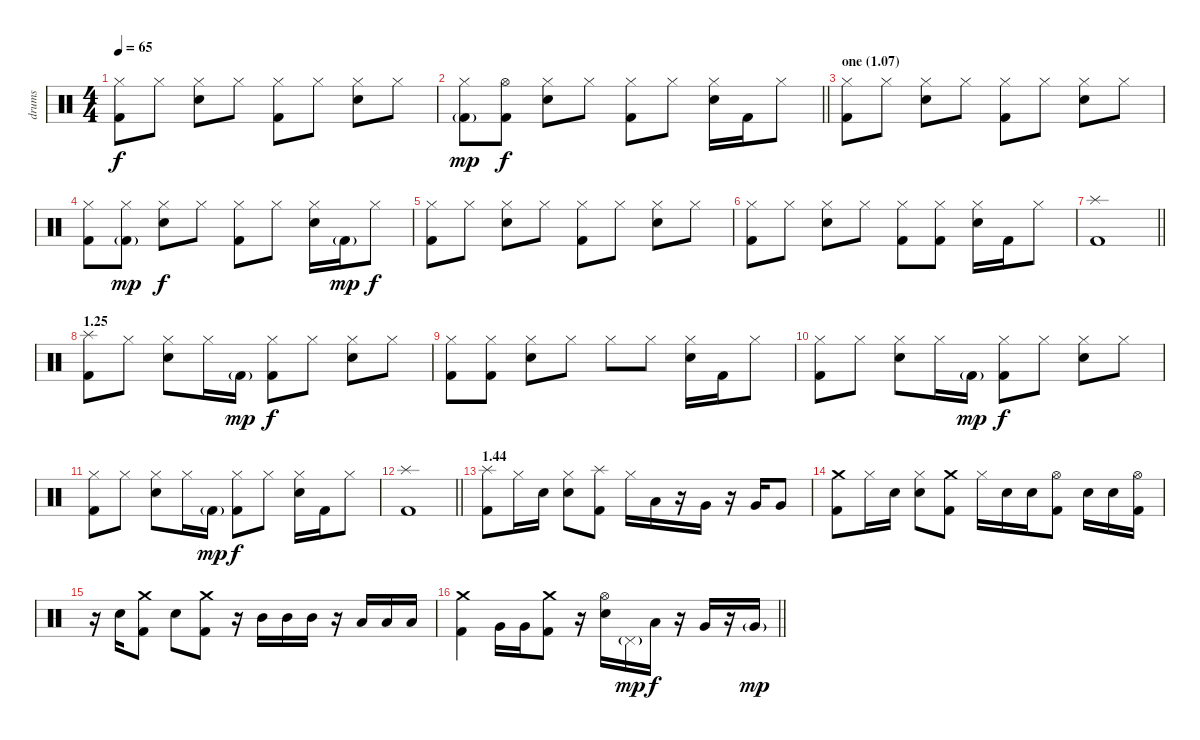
\track ("drums" "drums") {instrument percussion}
\staff {score}
\articulation defaults
\ts (4 4)
\tempo 65
\clef neutral
\ks c
("Hi-Hat (closed)" "Kick (hit) 2").8{dy f} "Hi-Hat (closed)".8 ("Hi-Hat (closed)" "Electric Snare (hit)").8 "Hi-Hat (closed)".8 ("Hi-Hat (closed)" "Kick (hit) 2").8 "Hi-Hat (closed)".8 ("Hi-Hat (closed)" "Electric Snare (hit)").8 "Hi-Hat (closed)".8 |
\barLineRight lightlight
("Hi-Hat (closed)" "Kick (hit) 2"{g}).8{dy mp} ("Hi-Hat (open)" "Kick (hit) 2").8{dy f} ("Hi-Hat (closed)" "Electric Snare (hit)").8 "Hi-Hat (closed)".8 ("Hi-Hat (closed)" "Kick (hit) 2").8 "Hi-Hat (closed)".8 ("Hi-Hat (closed)" "Electric Snare (hit)").16 "Kick (hit) 2".16 "Hi-Hat (closed)".8 |
\section ("" "one (1.07)")
("Hi-Hat (closed)" "Kick (hit) 2").8 "Hi-Hat (closed)".8 ("Hi-Hat (closed)" "Electric Snare (hit)").8 "Hi-Hat (closed)".8 ("Hi-Hat (closed)" "Kick (hit) 2").8 "Hi-Hat (closed)".8 ("Hi-Hat (closed)" "Electric Snare (hit)").8 "Hi-Hat (closed)".8 |
("Hi-Hat (closed)" "Kick (hit) 2").8 ("Hi-Hat (closed)" "Kick (hit) 2"{g}).8{dy mp} ("Hi-Hat (closed)" "Electric Snare (hit)").8{dy f} "Hi-Hat (closed)".8 ("Hi-Hat (closed)" "Kick (hit) 2").8 "Hi-Hat (closed)".8 ("Hi-Hat (closed)" "Electric Snare (hit)").16 "Kick (hit) 2"{g}.16{dy mp} "Hi-Hat (closed)".8{dy f} |
("Hi-Hat (closed)" "Kick (hit) 2").8 "Hi-Hat (closed)".8 ("Hi-Hat (closed)" "Electric Snare (hit)").8 "Hi-Hat (closed)".8 ("Hi-Hat (closed)" "Kick (hit) 2").8 "Hi-Hat (closed)".8 ("Hi-Hat (closed)" "Electric Snare (hit)").8 "Hi-Hat (closed)".8 |
("Hi-Hat (closed)" "Kick (hit) 2").8 "Hi-Hat (closed)".8 ("Hi-Hat (closed)" "Electric Snare (hit)").8 "Hi-Hat (closed)".8 ("Hi-Hat (closed)" "Kick (hit) 2").8 ("Hi-Hat (closed)" "Kick (hit) 2").8 ("Hi-Hat (closed)" "Electric Snare (hit)").16 "Kick (hit) 2".16 "Hi-Hat (closed)".8 |
\barLineRight lightlight
("Splash (hit)" "Kick (hit) 2").1 |
\section ("" "1.25")
("Splash (hit)" "Kick (hit) 2").8 "Hi-Hat (closed)".8 ("Hi-Hat (closed)" "Electric Snare (hit)").8 "Hi-Hat (closed)".16 "Kick (hit) 2"{g}.16{dy mp} ("Hi-Hat (closed)" "Kick (hit) 2").8{dy f} "Hi-Hat (closed)".8 ("Hi-Hat (closed)" "Electric Snare (hit)").8 "Hi-Hat (closed)".8 |
("Hi-Hat (closed)" "Kick (hit) 2").8 ("Hi-Hat (closed)" "Kick (hit) 2").8 ("Hi-Hat (closed)" "Electric Snare (hit)").8 "Hi-Hat (closed)".8 "Hi-Hat (closed)".8 "Hi-Hat (closed)".8 ("Hi-Hat (closed)" "Electric Snare (hit)").16 "Kick (hit) 2".16 "Hi-Hat (closed)".8 |
("Hi-Hat (closed)" "Kick (hit) 2").8 "Hi-Hat (closed)".8 ("Hi-Hat (closed)" "Electric Snare (hit)").8 "Hi-Hat (closed)".16 "Kick (hit) 2"{g}.16{dy mp} ("Hi-Hat (closed)" "Kick (hit) 2").8{dy f} "Hi-Hat (closed)".8 ("Hi-Hat (closed)" "Electric Snare (hit)").8 "Hi-Hat (closed)".8 |
("Hi-Hat (closed)" "Kick (hit) 2").8 "Hi-Hat (closed)".8 ("Hi-Hat (closed)" "Electric Snare (hit)").8 "Hi-Hat (closed)".16 "Kick (hit) 2"{g}.16{dy mp} ("Hi-Hat (closed)" "Kick (hit) 2").8{dy f} "Hi-Hat (closed)".8 ("Hi-Hat (closed)" "Electric Snare (hit)").16 "Kick (hit) 2".16 "Hi-Hat (closed)".8 |
\barLineRight lightlight
("Splash (hit)" "Kick (hit) 2").1 |
\section ("" "1.44")
("Splash (hit)" "Kick (hit) 2").8 "Hi-Hat (closed)".16 "Electric Snare (hit)".16 ("Hi-Hat (closed)" "Electric Snare (hit)").8 ("Splash (hit)" "Kick (hit) 2").8 "Hi-Hat (closed)".16 "Low Tom (hit)".16 r.16 "Very Low Tom (hit)".16 r.16 "Very Low Tom (hit)".16 "Very Low Tom (hit)".8 |
("Crash medium (hit)" "Kick (hit) 2").8 "Hi-Hat (closed)".16 "Electric Snare (hit)".16 ("Hi-Hat (closed)" "Electric Snare (hit)").8 ("Crash medium (hit)" "Kick (hit) 2").8 "Hi-Hat (closed)".16 "Electric Snare (hit)".16 "Electric Snare (hit)".16 ("Hi-Hat (open)" "Kick (hit) 2").8 "Electric Snare (hit)".16 "Electric Snare (hit)".16 ("Hi-Hat (open)" "Kick (hit) 2").16 |
r.16 "Electric Snare (hit)".16 ("Crash medium (hit)" "Kick (hit) 2").8 "Electric Snare (hit)".8 ("Crash medium (hit)" "Kick (hit) 2").8 r.16 "Mid Tom (hit)".16 "Mid Tom (hit)".16 "Mid Tom (hit)".16 r.16 "Low Tom (hit)".16 "Low Tom (hit)".16 "Low Tom (hit)".16 |
\barLineRight lightlight
("Crash medium (hit)" "Kick (hit) 2").4 "Very Low Tom (hit)".16 "Very Low Tom (hit)".16 ("Crash medium (hit)" "Kick (hit) 2").8 r.16 ("Hi-Hat (open)" "Electric Snare (hit)").16 "Pedal Hi-Hat (hit)"{g}.16{dy mp} "Low Tom (hit)".16{dy f} r.16 "Very Low Tom (hit)".16 r.16 "Very Low Tom (hit)"{g}.16{dy mp}
